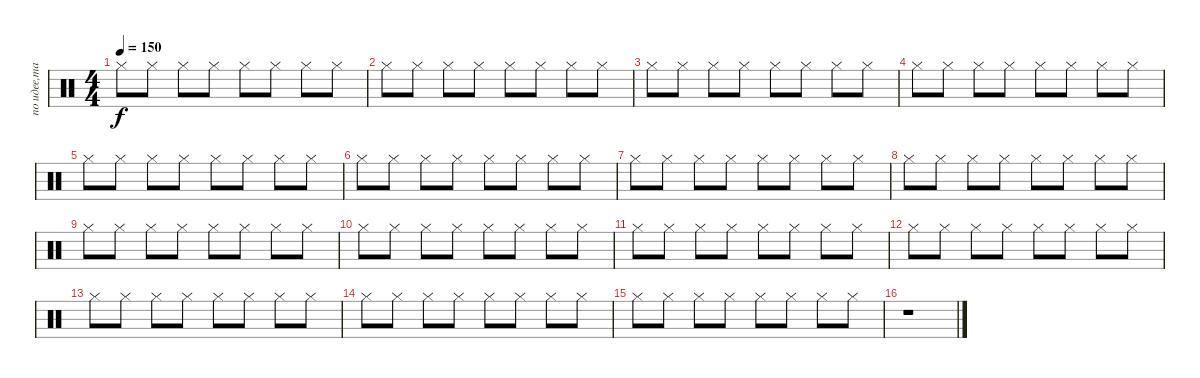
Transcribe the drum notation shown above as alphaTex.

\track ("по идее,там Кулаков...но это Гурьянов:)" "по идее,та") {instrument percussion}
\staff {score}
\articulation defaults
\ts (4 4)
\tempo 150
\clef neutral
\ks c "Hi-Hat (closed)".8{dy f} "Hi-Hat (closed)".8 "Hi-Hat (closed)".8 "Hi-Hat (closed)".8 "Hi-Hat (closed)".8 "Hi-Hat (closed)".8 "Hi-Hat (closed)".8 "Hi-Hat (closed)".8
|
"Hi-Hat (closed)".8 "Hi-Hat (closed)".8 "Hi-Hat (closed)".8 "Hi-Hat (closed)".8 "Hi-Hat (closed)".8 "Hi-Hat (closed)".8 "Hi-Hat (closed)".8 "Hi-Hat (closed)".8 |
"Hi-Hat (closed)".8 "Hi-Hat (closed)".8 "Hi-Hat (closed)".8 "Hi-Hat (closed)".8 "Hi-Hat (closed)".8 "Hi-Hat (closed)".8 "Hi-Hat (closed)".8 "Hi-Hat (closed)".8 |
"Hi-Hat (closed)".8 "Hi-Hat (closed)".8 "Hi-Hat (closed)".8 "Hi-Hat (closed)".8 "Hi-Hat (closed)".8 "Hi-Hat (closed)".8 "Hi-Hat (closed)".8 "Hi-Hat (closed)".8 |
"Hi-Hat (closed)".8 "Hi-Hat (closed)".8 "Hi-Hat (closed)".8 "Hi-Hat (closed)".8 "Hi-Hat (closed)".8 "Hi-Hat (closed)".8 "Hi-Hat (closed)".8 "Hi-Hat (closed)".8 |
"Hi-Hat (closed)".8 "Hi-Hat (closed)".8 "Hi-Hat (closed)".8 "Hi-Hat (closed)".8 "Hi-Hat (closed)".8 "Hi-Hat (closed)".8 "Hi-Hat (closed)".8 "Hi-Hat (closed)".8 |
"Hi-Hat (closed)".8 "Hi-Hat (closed)".8 "Hi-Hat (closed)".8 "Hi-Hat (closed)".8 "Hi-Hat (closed)".8 "Hi-Hat (closed)".8 "Hi-Hat (closed)".8 "Hi-Hat (closed)".8 |
"Hi-Hat (closed)".8 "Hi-Hat (closed)".8 "Hi-Hat (closed)".8 "Hi-Hat (closed)".8 "Hi-Hat (closed)".8 "Hi-Hat (closed)".8 "Hi-Hat (closed)".8 "Hi-Hat (closed)".8 |
"Hi-Hat (closed)".8 "Hi-Hat (closed)".8 "Hi-Hat (closed)".8 "Hi-Hat (closed)".8 "Hi-Hat (closed)".8 "Hi-Hat (closed)".8 "Hi-Hat (closed)".8 "Hi-Hat (closed)".8 |
"Hi-Hat (closed)".8 "Hi-Hat (closed)".8 "Hi-Hat (closed)".8 "Hi-Hat (closed)".8 "Hi-Hat (closed)".8 "Hi-Hat (closed)".8 "Hi-Hat (closed)".8 "Hi-Hat (closed)".8 |
"Hi-Hat (closed)".8 "Hi-Hat (closed)".8 "Hi-Hat (closed)".8 "Hi-Hat (closed)".8 "Hi-Hat (closed)".8 "Hi-Hat (closed)".8 "Hi-Hat (closed)".8 "Hi-Hat (closed)".8 |
"Hi-Hat (closed)".8 "Hi-Hat (closed)".8 "Hi-Hat (closed)".8 "Hi-Hat (closed)".8 "Hi-Hat (closed)".8 "Hi-Hat (closed)".8 "Hi-Hat (closed)".8 "Hi-Hat (closed)".8 |
"Hi-Hat (closed)".8 "Hi-Hat (closed)".8 "Hi-Hat (closed)".8 "Hi-Hat (closed)".8 "Hi-Hat (closed)".8 "Hi-Hat (closed)".8 "Hi-Hat (closed)".8 "Hi-Hat (closed)".8 |
"Hi-Hat (closed)".8 "Hi-Hat (closed)".8 "Hi-Hat (closed)".8 "Hi-Hat (closed)".8 "Hi-Hat (closed)".8 "Hi-Hat (closed)".8 "Hi-Hat (closed)".8 "Hi-Hat (closed)".8 |
"Hi-Hat (closed)".8 "Hi-Hat (closed)".8 "Hi-Hat (closed)".8 "Hi-Hat (closed)".8 "Hi-Hat (closed)".8 "Hi-Hat (closed)".8 "Hi-Hat (closed)".8 "Hi-Hat (closed)".8 |
r.1
